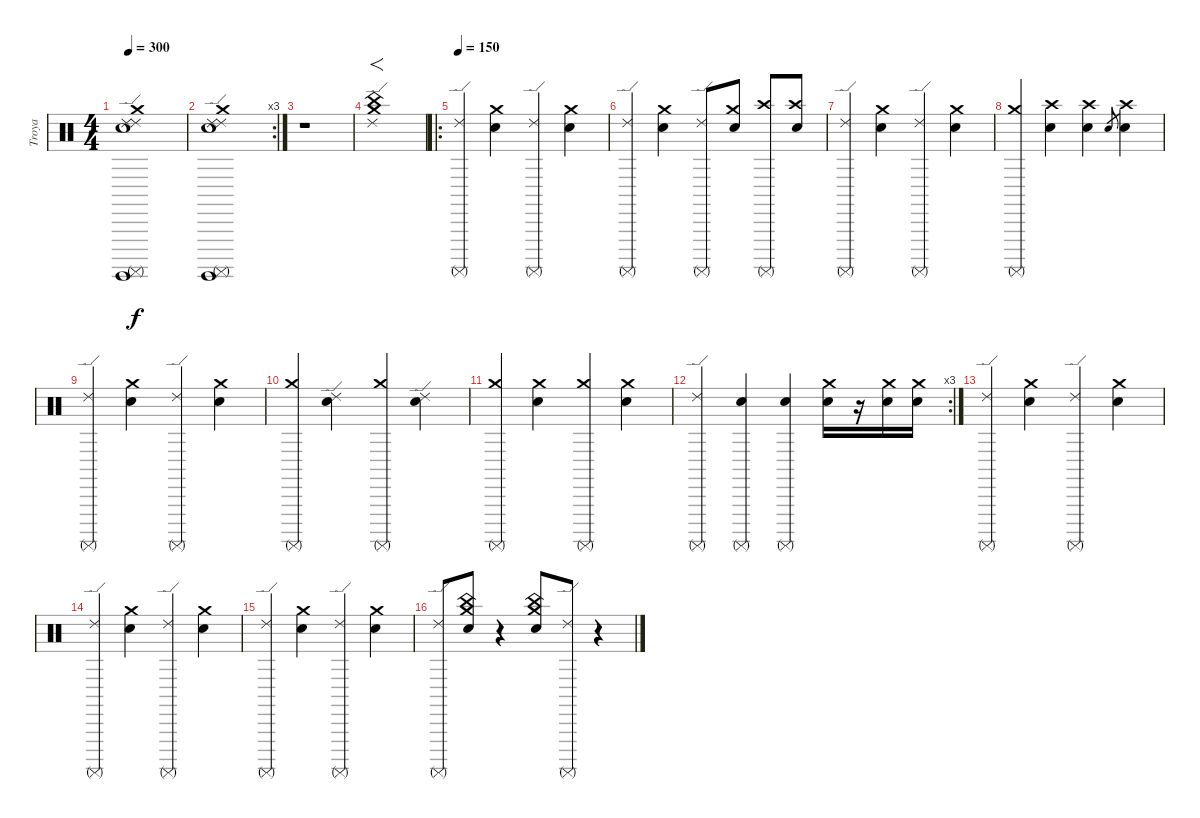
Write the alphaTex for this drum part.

\track ("Troya" "Troya") {instrument percussion}
\staff {score}
\articulation defaults
\ts (4 4)
\tempo 300
\clef neutral
\ks c
("Ride (edge) 2" "Ride (edge) 2" "Crash medium (hit)" "Surdo (hit)" "Surdo (mute)" "Electric Snare (hit)").1{dy f} |
\rc 3
("Ride (edge) 2" "Ride (edge) 2" "Crash medium (hit)" "Surdo (hit)" "Surdo (mute)" "Electric Snare (hit)").1 |
r.1 |
("China (hit)" "Ride (edge) 2" "Crash medium (hit)").1{f} |
\ro
\tempo 150
("Ride (edge) 2" "Surdo (mute)").4 ("Crash medium (hit)" "Electric Snare (hit)").4 ("Ride (edge) 2" "Surdo (mute)").4 ("Crash medium (hit)" "Electric Snare (hit)").4 |
("Ride (edge) 2" "Surdo (mute)").4 ("Crash medium (hit)" "Electric Snare (hit)").4 ("Ride (edge) 2" "Surdo (mute)").8 ("Crash medium (hit)" "Electric Snare (hit)").8 ("Crash high (hit)" "Surdo (mute)").8 ("Crash high (hit)" "Electric Snare (hit)").8 |
("Ride (edge) 2" "Surdo (mute)").4 ("Crash medium (hit)" "Electric Snare (hit)").4 ("Ride (edge) 2" "Surdo (mute)").4 ("Crash medium (hit)" "Electric Snare (hit)").4 |
("Crash medium (hit)" "Surdo (mute)").4 ("Crash high (hit)" "Electric Snare (hit)").4 ("Crash high (hit)" "Electric Snare (hit)").4 "Electric Snare (hit)".8{gr} ("Crash high (hit)" "Electric Snare (hit)").4 |
("Ride (edge) 2" "Surdo (mute)").4 ("Crash medium (hit)" "Electric Snare (hit)").4 ("Ride (edge) 2" "Surdo (mute)").4 ("Crash medium (hit)" "Electric Snare (hit)").4 |
("Crash medium (hit)" "Surdo (mute)").4 ("Ride (edge) 2" "Electric Snare (hit)").4 ("Crash medium (hit)" "Surdo (mute)").4 ("Ride (edge) 2" "Electric Snare (hit)").4 |
("Crash medium (hit)" "Surdo (mute)").4 ("Crash medium (hit)" "Electric Snare (hit)").4 ("Crash medium (hit)" "Surdo (mute)").4 ("Crash medium (hit)" "Electric Snare (hit)").4 |
\rc 3
("Ride (edge) 2" "Surdo (mute)").4 ("Surdo (mute)" "Electric Snare (hit)").4 ("Surdo (mute)" "Electric Snare (hit)").4 ("Crash medium (hit)" "Snare (hit) 2").16 r.16 ("Crash medium (hit)" "Snare (hit) 2").16 ("Crash medium (hit)" "Snare (hit) 2").16 |
("Ride (edge) 2" "Surdo (mute)").4 ("Crash medium (hit)" "Electric Snare (hit)").4 ("Ride (edge) 2" "Surdo (mute)").4 ("Crash medium (hit)" "Electric Snare (hit)").4 |
("Ride (edge) 2" "Surdo (mute)").4 ("Crash medium (hit)" "Electric Snare (hit)").4 ("Ride (edge) 2" "Surdo (mute)").4 ("Crash medium (hit)" "Electric Snare (hit)").4 |
("Ride (edge) 2" "Surdo (mute)").4 ("Crash medium (hit)" "Electric Snare (hit)").4 ("Ride (edge) 2" "Surdo (mute)").4 ("Crash medium (hit)" "Electric Snare (hit)").4 |
("Ride (edge) 2" "Surdo (mute)").8 ("China (hit)" "Crash medium (hit)" "Electric Snare (hit)").8 r.4 ("China (hit)" "Crash medium (hit)" "Electric Snare (hit)").8 ("Ride (edge) 2" "Surdo (mute)").8 r.4
